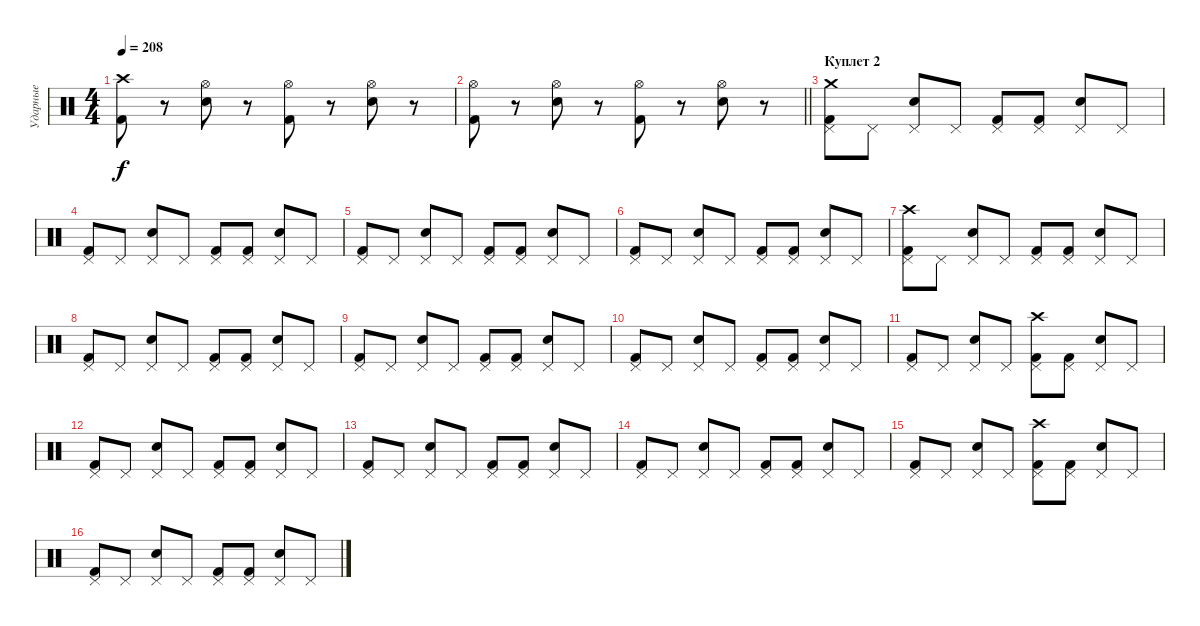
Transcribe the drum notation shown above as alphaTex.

\track ("Ударные" "Ударные") {instrument percussion}
\staff {score}
\articulation defaults
\ts (4 4)
\tempo 208
\clef neutral
\ks c
("Crash high (hit)" "Kick (hit) 2").8{dy f} r.8 ("Hi-Hat (open)" "Electric Snare (hit)").8 r.8 ("Hi-Hat (open)" "Kick (hit) 2").8 r.8 ("Hi-Hat (open)" "Electric Snare (hit)").8 r.8 |
\barLineRight lightlight
("Hi-Hat (open)" "Kick (hit) 2").8 r.8 ("Hi-Hat (open)" "Electric Snare (hit)").8 r.8 ("Hi-Hat (open)" "Kick (hit) 2").8 r.8 ("Hi-Hat (open)" "Electric Snare (hit)").8 r.8 |
\section ("" "Куплет 2")
("Pedal Hi-Hat (hit)" "Crash medium (hit)" "Kick (hit) 2").8 "Pedal Hi-Hat (hit)".8 ("Pedal Hi-Hat (hit)" "Electric Snare (hit)").8 "Pedal Hi-Hat (hit)".8 ("Pedal Hi-Hat (hit)" "Kick (hit) 2").8 ("Pedal Hi-Hat (hit)" "Kick (hit) 2").8 ("Pedal Hi-Hat (hit)" "Electric Snare (hit)").8 "Pedal Hi-Hat (hit)".8 |
("Pedal Hi-Hat (hit)" "Kick (hit) 2").8 "Pedal Hi-Hat (hit)".8 ("Pedal Hi-Hat (hit)" "Electric Snare (hit)").8 "Pedal Hi-Hat (hit)".8 ("Pedal Hi-Hat (hit)" "Kick (hit) 2").8 ("Pedal Hi-Hat (hit)" "Kick (hit) 2").8 ("Pedal Hi-Hat (hit)" "Electric Snare (hit)").8 "Pedal Hi-Hat (hit)".8 |
("Pedal Hi-Hat (hit)" "Kick (hit) 2").8 "Pedal Hi-Hat (hit)".8 ("Pedal Hi-Hat (hit)" "Electric Snare (hit)").8 "Pedal Hi-Hat (hit)".8 ("Pedal Hi-Hat (hit)" "Kick (hit) 2").8 ("Pedal Hi-Hat (hit)" "Kick (hit) 2").8 ("Pedal Hi-Hat (hit)" "Electric Snare (hit)").8 "Pedal Hi-Hat (hit)".8 |
("Pedal Hi-Hat (hit)" "Kick (hit) 2").8 "Pedal Hi-Hat (hit)".8 ("Pedal Hi-Hat (hit)" "Electric Snare (hit)").8 "Pedal Hi-Hat (hit)".8 ("Pedal Hi-Hat (hit)" "Kick (hit) 2").8 ("Pedal Hi-Hat (hit)" "Kick (hit) 2").8 ("Pedal Hi-Hat (hit)" "Electric Snare (hit)").8 "Pedal Hi-Hat (hit)".8 |
("Pedal Hi-Hat (hit)" "Crash high (hit)" "Kick (hit) 2").8 "Pedal Hi-Hat (hit)".8 ("Pedal Hi-Hat (hit)" "Electric Snare (hit)").8 "Pedal Hi-Hat (hit)".8 ("Pedal Hi-Hat (hit)" "Kick (hit) 2").8 ("Pedal Hi-Hat (hit)" "Kick (hit) 2").8 ("Pedal Hi-Hat (hit)" "Electric Snare (hit)").8 "Pedal Hi-Hat (hit)".8 |
("Pedal Hi-Hat (hit)" "Kick (hit) 2").8 "Pedal Hi-Hat (hit)".8 ("Pedal Hi-Hat (hit)" "Electric Snare (hit)").8 "Pedal Hi-Hat (hit)".8 ("Pedal Hi-Hat (hit)" "Kick (hit) 2").8 ("Pedal Hi-Hat (hit)" "Kick (hit) 2").8 ("Pedal Hi-Hat (hit)" "Electric Snare (hit)").8 "Pedal Hi-Hat (hit)".8 |
("Pedal Hi-Hat (hit)" "Kick (hit) 2").8 "Pedal Hi-Hat (hit)".8 ("Pedal Hi-Hat (hit)" "Electric Snare (hit)").8 "Pedal Hi-Hat (hit)".8 ("Pedal Hi-Hat (hit)" "Kick (hit) 2").8 ("Pedal Hi-Hat (hit)" "Kick (hit) 2").8 ("Pedal Hi-Hat (hit)" "Electric Snare (hit)").8 "Pedal Hi-Hat (hit)".8 |
("Pedal Hi-Hat (hit)" "Kick (hit) 2").8 "Pedal Hi-Hat (hit)".8 ("Pedal Hi-Hat (hit)" "Electric Snare (hit)").8 "Pedal Hi-Hat (hit)".8 ("Pedal Hi-Hat (hit)" "Kick (hit) 2").8 ("Pedal Hi-Hat (hit)" "Kick (hit) 2").8 ("Pedal Hi-Hat (hit)" "Electric Snare (hit)").8 "Pedal Hi-Hat (hit)".8 |
("Pedal Hi-Hat (hit)" "Kick (hit) 2").8 "Pedal Hi-Hat (hit)".8 ("Pedal Hi-Hat (hit)" "Electric Snare (hit)").8 "Pedal Hi-Hat (hit)".8 ("Pedal Hi-Hat (hit)" "Crash high (hit)" "Kick (hit) 2").8 ("Pedal Hi-Hat (hit)" "Kick (hit) 2").8 ("Pedal Hi-Hat (hit)" "Electric Snare (hit)").8 "Pedal Hi-Hat (hit)".8 |
("Pedal Hi-Hat (hit)" "Kick (hit) 2").8 "Pedal Hi-Hat (hit)".8 ("Pedal Hi-Hat (hit)" "Electric Snare (hit)").8 "Pedal Hi-Hat (hit)".8 ("Pedal Hi-Hat (hit)" "Kick (hit) 2").8 ("Pedal Hi-Hat (hit)" "Kick (hit) 2").8 ("Pedal Hi-Hat (hit)" "Electric Snare (hit)").8 "Pedal Hi-Hat (hit)".8 |
("Pedal Hi-Hat (hit)" "Kick (hit) 2").8 "Pedal Hi-Hat (hit)".8 ("Pedal Hi-Hat (hit)" "Electric Snare (hit)").8 "Pedal Hi-Hat (hit)".8 ("Pedal Hi-Hat (hit)" "Kick (hit) 2").8 ("Pedal Hi-Hat (hit)" "Kick (hit) 2").8 ("Pedal Hi-Hat (hit)" "Electric Snare (hit)").8 "Pedal Hi-Hat (hit)".8 |
("Pedal Hi-Hat (hit)" "Kick (hit) 2").8 "Pedal Hi-Hat (hit)".8 ("Pedal Hi-Hat (hit)" "Electric Snare (hit)").8 "Pedal Hi-Hat (hit)".8 ("Pedal Hi-Hat (hit)" "Kick (hit) 2").8 ("Pedal Hi-Hat (hit)" "Kick (hit) 2").8 ("Pedal Hi-Hat (hit)" "Electric Snare (hit)").8 "Pedal Hi-Hat (hit)".8 |
("Pedal Hi-Hat (hit)" "Kick (hit) 2").8 "Pedal Hi-Hat (hit)".8 ("Pedal Hi-Hat (hit)" "Electric Snare (hit)").8 "Pedal Hi-Hat (hit)".8 ("Pedal Hi-Hat (hit)" "Crash high (hit)" "Kick (hit) 2").8 ("Pedal Hi-Hat (hit)" "Kick (hit) 2").8 ("Pedal Hi-Hat (hit)" "Electric Snare (hit)").8 "Pedal Hi-Hat (hit)".8 |
("Pedal Hi-Hat (hit)" "Kick (hit) 2").8 "Pedal Hi-Hat (hit)".8 ("Pedal Hi-Hat (hit)" "Electric Snare (hit)").8 "Pedal Hi-Hat (hit)".8 ("Pedal Hi-Hat (hit)" "Kick (hit) 2").8 ("Pedal Hi-Hat (hit)" "Kick (hit) 2").8 ("Pedal Hi-Hat (hit)" "Electric Snare (hit)").8 "Pedal Hi-Hat (hit)".8
